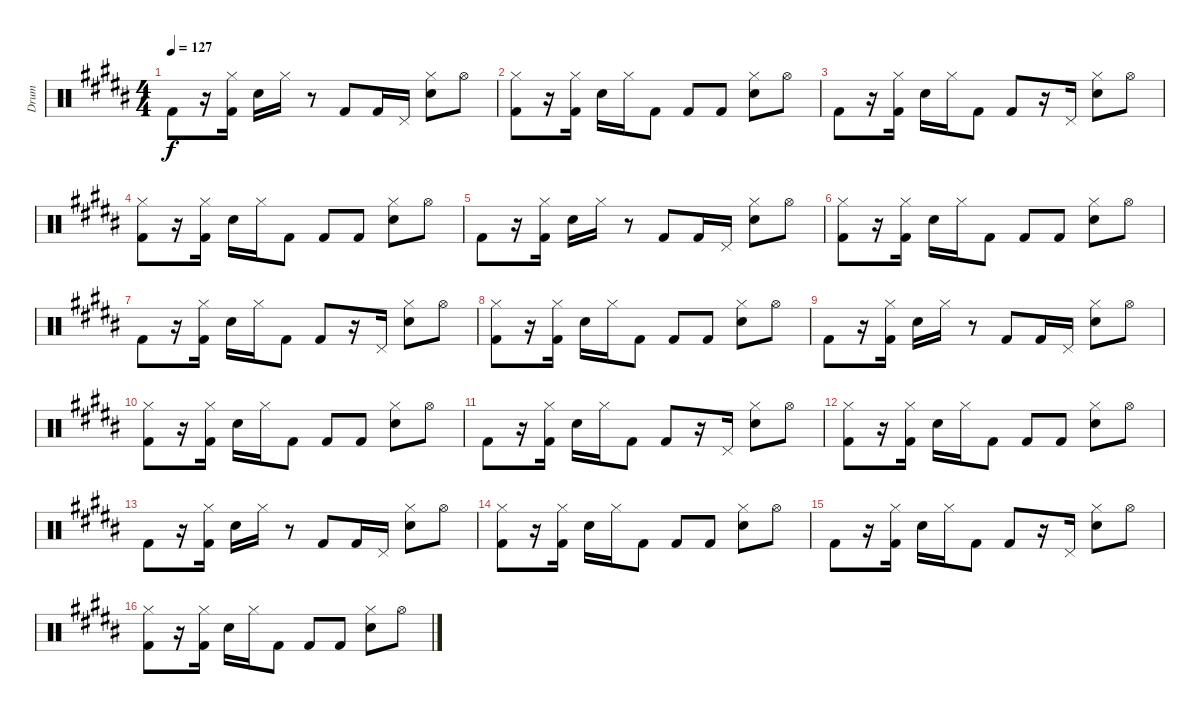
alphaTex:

\track ("Drum" "Drum") {instrument percussion}
\staff {score}
\articulation defaults
\ts (4 4)
\tempo 127
\clef neutral
\ks g#minor "Kick (hit) 2".8{dy f}
r.16 ("Hi-Hat (closed)" "Kick (hit) 2").16 "Snare (hit) 2".16 "Hi-Hat (closed)".16 r.8 "Kick (hit) 2".8 "Kick (hit) 2".16 "Pedal Hi-Hat (hit)".16 ("Hi-Hat (closed)" "Snare (hit) 2").8 "Hi-Hat (open)".8 |
("Hi-Hat (closed)" "Kick (hit) 2").8 r.16 ("Hi-Hat (closed)" "Kick (hit) 2").16 "Snare (hit) 2".16 "Hi-Hat (closed)".16 "Kick (hit) 2".8 "Kick (hit) 2".8 "Kick (hit) 2".8 ("Hi-Hat (closed)" "Snare (hit) 2").8 "Hi-Hat (open)".8 |
"Kick (hit) 2".8 r.16 ("Hi-Hat (closed)" "Kick (hit) 2").16 "Snare (hit) 2".16 "Hi-Hat (closed)".16 "Kick (hit) 2".8 "Kick (hit) 2".8 r.16 "Pedal Hi-Hat (hit)".16 ("Hi-Hat (closed)" "Snare (hit) 2").8 "Hi-Hat (open)".8 |
("Hi-Hat (closed)" "Kick (hit) 2").8 r.16 ("Hi-Hat (closed)" "Kick (hit) 2").16 "Snare (hit) 2".16 "Hi-Hat (closed)".16 "Kick (hit) 2".8 "Kick (hit) 2".8 "Kick (hit) 2".8 ("Hi-Hat (closed)" "Snare (hit) 2").8 "Hi-Hat (open)".8 |
"Kick (hit) 2".8 r.16 ("Hi-Hat (closed)" "Kick (hit) 2").16 "Snare (hit) 2".16 "Hi-Hat (closed)".16 r.8 "Kick (hit) 2".8 "Kick (hit) 2".16 "Pedal Hi-Hat (hit)".16 ("Hi-Hat (closed)" "Snare (hit) 2").8 "Hi-Hat (open)".8 |
("Hi-Hat (closed)" "Kick (hit) 2").8 r.16 ("Hi-Hat (closed)" "Kick (hit) 2").16 "Snare (hit) 2".16 "Hi-Hat (closed)".16 "Kick (hit) 2".8 "Kick (hit) 2".8 "Kick (hit) 2".8 ("Hi-Hat (closed)" "Snare (hit) 2").8 "Hi-Hat (open)".8 |
"Kick (hit) 2".8 r.16 ("Hi-Hat (closed)" "Kick (hit) 2").16 "Snare (hit) 2".16 "Hi-Hat (closed)".16 "Kick (hit) 2".8 "Kick (hit) 2".8 r.16 "Pedal Hi-Hat (hit)".16 ("Hi-Hat (closed)" "Snare (hit) 2").8 "Hi-Hat (open)".8 |
("Hi-Hat (closed)" "Kick (hit) 2").8 r.16 ("Hi-Hat (closed)" "Kick (hit) 2").16 "Snare (hit) 2".16 "Hi-Hat (closed)".16 "Kick (hit) 2".8 "Kick (hit) 2".8 "Kick (hit) 2".8 ("Hi-Hat (closed)" "Snare (hit) 2").8 "Hi-Hat (open)".8 |
"Kick (hit) 2".8 r.16 ("Hi-Hat (closed)" "Kick (hit) 2").16 "Snare (hit) 2".16 "Hi-Hat (closed)".16 r.8 "Kick (hit) 2".8 "Kick (hit) 2".16 "Pedal Hi-Hat (hit)".16 ("Hi-Hat (closed)" "Snare (hit) 2").8 "Hi-Hat (open)".8 |
("Hi-Hat (closed)" "Kick (hit) 2").8 r.16 ("Hi-Hat (closed)" "Kick (hit) 2").16 "Snare (hit) 2".16 "Hi-Hat (closed)".16 "Kick (hit) 2".8 "Kick (hit) 2".8 "Kick (hit) 2".8 ("Hi-Hat (closed)" "Snare (hit) 2").8 "Hi-Hat (open)".8 |
"Kick (hit) 2".8 r.16 ("Hi-Hat (closed)" "Kick (hit) 2").16 "Snare (hit) 2".16 "Hi-Hat (closed)".16 "Kick (hit) 2".8 "Kick (hit) 2".8 r.16 "Pedal Hi-Hat (hit)".16 ("Hi-Hat (closed)" "Snare (hit) 2").8 "Hi-Hat (open)".8 |
("Hi-Hat (closed)" "Kick (hit) 2").8 r.16 ("Hi-Hat (closed)" "Kick (hit) 2").16 "Snare (hit) 2".16 "Hi-Hat (closed)".16 "Kick (hit) 2".8 "Kick (hit) 2".8 "Kick (hit) 2".8 ("Hi-Hat (closed)" "Snare (hit) 2").8 "Hi-Hat (open)".8 |
"Kick (hit) 2".8 r.16 ("Hi-Hat (closed)" "Kick (hit) 2").16 "Snare (hit) 2".16 "Hi-Hat (closed)".16 r.8 "Kick (hit) 2".8 "Kick (hit) 2".16 "Pedal Hi-Hat (hit)".16 ("Hi-Hat (closed)" "Snare (hit) 2").8 "Hi-Hat (open)".8 |
("Hi-Hat (closed)" "Kick (hit) 2").8 r.16 ("Hi-Hat (closed)" "Kick (hit) 2").16 "Snare (hit) 2".16 "Hi-Hat (closed)".16 "Kick (hit) 2".8 "Kick (hit) 2".8 "Kick (hit) 2".8 ("Hi-Hat (closed)" "Snare (hit) 2").8 "Hi-Hat (open)".8 |
"Kick (hit) 2".8 r.16 ("Hi-Hat (closed)" "Kick (hit) 2").16 "Snare (hit) 2".16 "Hi-Hat (closed)".16 "Kick (hit) 2".8 "Kick (hit) 2".8 r.16 "Pedal Hi-Hat (hit)".16 ("Hi-Hat (closed)" "Snare (hit) 2").8 "Hi-Hat (open)".8 |
("Hi-Hat (closed)" "Kick (hit) 2").8 r.16 ("Hi-Hat (closed)" "Kick (hit) 2").16 "Snare (hit) 2".16 "Hi-Hat (closed)".16 "Kick (hit) 2".8 "Kick (hit) 2".8 "Kick (hit) 2".8 ("Hi-Hat (closed)" "Snare (hit) 2").8 "Hi-Hat (open)".8
